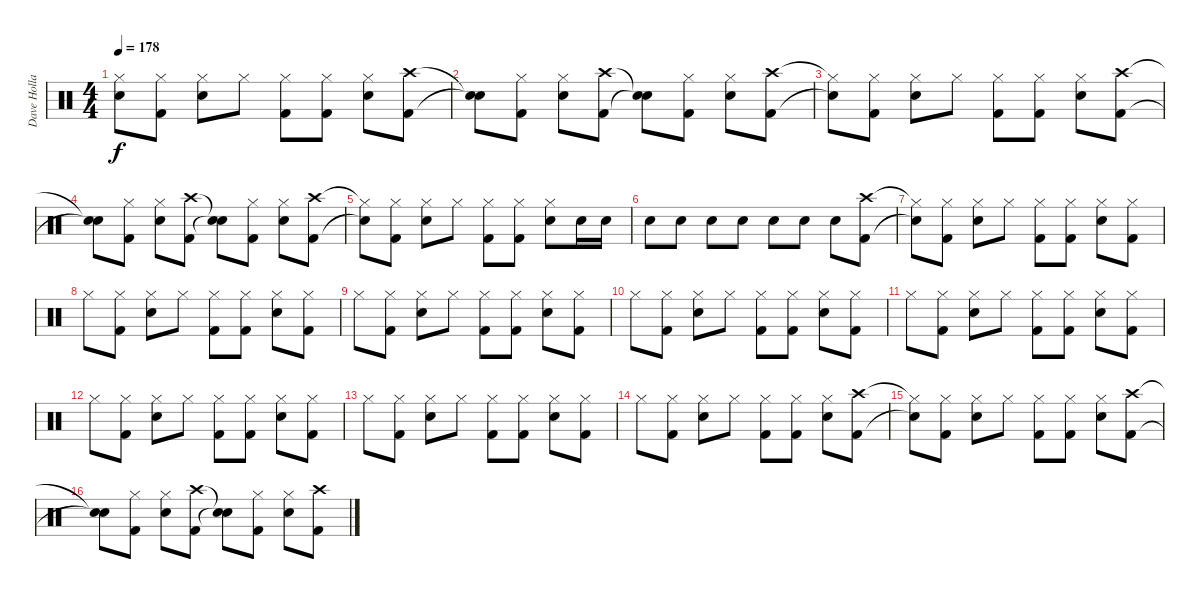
\track ("Dave Holland" "Dave Holla") {instrument percussion}
\staff {score}
\articulation defaults
\ts (4 4)
\tempo 178
\clef neutral
\ks c
("Hi-Hat (closed)"{t} "Snare (hit)"{t}).8{dy f} ("Hi-Hat (closed)" "Kick (hit) 2").8 ("Hi-Hat (closed)" "Snare (hit) 2").8 "Hi-Hat (closed)".8 ("Hi-Hat (closed)" "Kick (hit) 2").8 ("Hi-Hat (closed)" "Kick (hit) 2").8 ("Hi-Hat (closed)" "Snare (hit) 2").8 ("Crash high (hit)" "Kick (hit) 2").8 |
("Snare (hit)"{t} "Snare (hit)"{t}).8 ("Hi-Hat (closed)" "Kick (hit) 2").8 ("Hi-Hat (closed)" "Snare (hit) 2").8 ("Crash high (hit)" "Kick (hit) 2").8 ("Snare (hit)"{t} "Snare (hit)"{t}).8 ("Hi-Hat (closed)" "Kick (hit) 2").8 ("Hi-Hat (closed)" "Snare (hit) 2").8 ("Crash high (hit)" "Kick (hit) 2").8 |
("Hi-Hat (closed)"{t} "Snare (hit)"{t}).8 ("Hi-Hat (closed)" "Kick (hit) 2").8 ("Hi-Hat (closed)" "Snare (hit) 2").8 "Hi-Hat (closed)".8 ("Hi-Hat (closed)" "Kick (hit) 2").8 ("Hi-Hat (closed)" "Kick (hit) 2").8 ("Hi-Hat (closed)" "Snare (hit) 2").8 ("Crash high (hit)" "Kick (hit) 2").8 |
("Snare (hit)"{t} "Snare (hit)"{t}).8 ("Hi-Hat (closed)" "Kick (hit) 2").8 ("Hi-Hat (closed)" "Snare (hit) 2").8 ("Crash high (hit)" "Kick (hit) 2").8 ("Snare (hit)"{t} "Snare (hit)"{t}).8 ("Hi-Hat (closed)" "Kick (hit) 2").8 ("Hi-Hat (closed)" "Snare (hit) 2").8 ("Crash high (hit)" "Kick (hit) 2").8 |
("Hi-Hat (closed)"{t} "Snare (hit)"{t}).8 ("Hi-Hat (closed)" "Kick (hit) 2").8 ("Hi-Hat (closed)" "Snare (hit) 2").8 "Hi-Hat (closed)".8 ("Hi-Hat (closed)" "Kick (hit) 2").8 ("Hi-Hat (closed)" "Kick (hit) 2").8 ("Hi-Hat (closed)" "Snare (hit) 2").8 "Snare (hit) 2".16 "Snare (hit) 2".16 |
"Snare (hit) 2".8 "Snare (hit) 2".8 "Snare (hit) 2".8 "Snare (hit) 2".8 "Snare (hit) 2".8 "Snare (hit) 2".8 "Snare (hit) 2".8 ("Crash high (hit)" "Kick (hit) 2").8 |
("Hi-Hat (closed)"{t} "Snare (hit)"{t}).8 ("Hi-Hat (closed)" "Kick (hit) 2").8 ("Hi-Hat (closed)" "Snare (hit) 2").8 "Hi-Hat (closed)".8 ("Hi-Hat (closed)" "Kick (hit) 2").8 ("Hi-Hat (closed)" "Kick (hit) 2").8 ("Hi-Hat (closed)" "Snare (hit) 2").8 ("Hi-Hat (closed)" "Kick (hit) 2").8 |
"Hi-Hat (closed)".8 ("Hi-Hat (closed)" "Kick (hit) 2").8 ("Hi-Hat (closed)" "Snare (hit) 2").8 "Hi-Hat (closed)".8 ("Hi-Hat (closed)" "Kick (hit) 2").8 ("Hi-Hat (closed)" "Kick (hit) 2").8 ("Hi-Hat (closed)" "Snare (hit) 2").8 ("Hi-Hat (closed)" "Kick (hit) 2").8 |
"Hi-Hat (closed)".8 ("Hi-Hat (closed)" "Kick (hit) 2").8 ("Hi-Hat (closed)" "Snare (hit) 2").8 "Hi-Hat (closed)".8 ("Hi-Hat (closed)" "Kick (hit) 2").8 ("Hi-Hat (closed)" "Kick (hit) 2").8 ("Hi-Hat (closed)" "Snare (hit) 2").8 ("Hi-Hat (closed)" "Kick (hit) 2").8 |
"Hi-Hat (closed)".8 ("Hi-Hat (closed)" "Kick (hit) 2").8 ("Hi-Hat (closed)" "Snare (hit) 2").8 "Hi-Hat (closed)".8 ("Hi-Hat (closed)" "Kick (hit) 2").8 ("Hi-Hat (closed)" "Kick (hit) 2").8 ("Hi-Hat (closed)" "Snare (hit) 2").8 ("Hi-Hat (closed)" "Kick (hit) 2").8 |
"Hi-Hat (closed)".8 ("Hi-Hat (closed)" "Kick (hit) 2").8 ("Hi-Hat (closed)" "Snare (hit) 2").8 "Hi-Hat (closed)".8 ("Hi-Hat (closed)" "Kick (hit) 2").8 ("Hi-Hat (closed)" "Kick (hit) 2").8 ("Hi-Hat (closed)" "Snare (hit) 2").8 ("Hi-Hat (closed)" "Kick (hit) 2").8 |
"Hi-Hat (closed)".8 ("Hi-Hat (closed)" "Kick (hit) 2").8 ("Hi-Hat (closed)" "Snare (hit) 2").8 "Hi-Hat (closed)".8 ("Hi-Hat (closed)" "Kick (hit) 2").8 ("Hi-Hat (closed)" "Kick (hit) 2").8 ("Hi-Hat (closed)" "Snare (hit) 2").8 ("Hi-Hat (closed)" "Kick (hit) 2").8 |
"Hi-Hat (closed)".8 ("Hi-Hat (closed)" "Kick (hit) 2").8 ("Hi-Hat (closed)" "Snare (hit) 2").8 "Hi-Hat (closed)".8 ("Hi-Hat (closed)" "Kick (hit) 2").8 ("Hi-Hat (closed)" "Kick (hit) 2").8 ("Hi-Hat (closed)" "Snare (hit) 2").8 ("Hi-Hat (closed)" "Kick (hit) 2").8 |
"Hi-Hat (closed)".8 ("Hi-Hat (closed)" "Kick (hit) 2").8 ("Hi-Hat (closed)" "Snare (hit) 2").8 "Hi-Hat (closed)".8 ("Hi-Hat (closed)" "Kick (hit) 2").8 ("Hi-Hat (closed)" "Kick (hit) 2").8 ("Hi-Hat (closed)" "Snare (hit) 2").8 ("Crash high (hit)" "Kick (hit) 2").8 |
("Hi-Hat (closed)"{t} "Snare (hit)"{t}).8 ("Hi-Hat (closed)" "Kick (hit) 2").8 ("Hi-Hat (closed)" "Snare (hit) 2").8 "Hi-Hat (closed)".8 ("Hi-Hat (closed)" "Kick (hit) 2").8 ("Hi-Hat (closed)" "Kick (hit) 2").8 ("Hi-Hat (closed)" "Snare (hit) 2").8 ("Crash high (hit)" "Kick (hit) 2").8 |
("Snare (hit)"{t} "Snare (hit)"{t}).8 ("Hi-Hat (closed)" "Kick (hit) 2").8 ("Hi-Hat (closed)" "Snare (hit) 2").8 ("Crash high (hit)" "Kick (hit) 2").8 ("Snare (hit)"{t} "Snare (hit)"{t}).8 ("Hi-Hat (closed)" "Kick (hit) 2").8 ("Hi-Hat (closed)" "Snare (hit) 2").8 ("Crash high (hit)" "Kick (hit) 2").8
